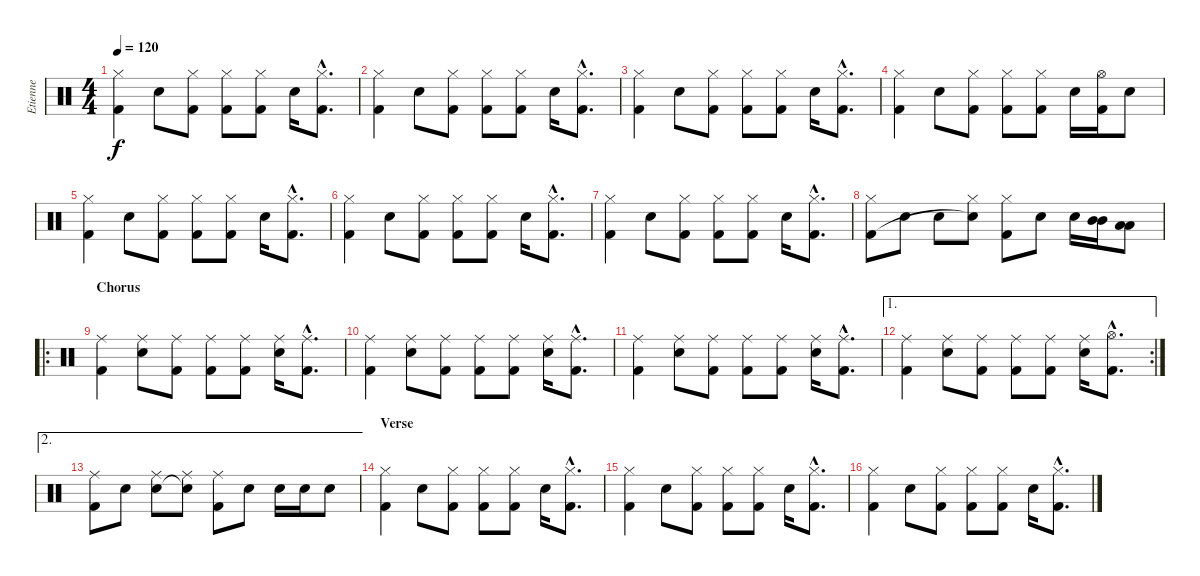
\track ("Etienne" "Etienne") {instrument percussion}
\staff {score}
\articulation defaults
\ts (4 4)
\tempo 120
\clef neutral
\ks c
("Hi-Hat (closed)" "Kick (hit) 2").4{dy f} "Snare (hit) 2".8 ("Hi-Hat (closed)" "Kick (hit) 2").8 ("Hi-Hat (closed)" "Kick (hit) 2").8 ("Hi-Hat (closed)" "Kick (hit) 2").8 "Snare (hit) 2".16 ("Hi-Hat (closed)"{hac} "Kick (hit) 2"{hac}).8{d} |
("Hi-Hat (closed)" "Kick (hit) 2").4 "Snare (hit) 2".8 ("Hi-Hat (closed)" "Kick (hit) 2").8 ("Hi-Hat (closed)" "Kick (hit) 2").8 ("Hi-Hat (closed)" "Kick (hit) 2").8 "Snare (hit) 2".16 ("Hi-Hat (closed)"{hac} "Kick (hit) 2"{hac}).8{d} |
("Hi-Hat (closed)" "Kick (hit) 2").4 "Snare (hit) 2".8 ("Hi-Hat (closed)" "Kick (hit) 2").8 ("Hi-Hat (closed)" "Kick (hit) 2").8 ("Hi-Hat (closed)" "Kick (hit) 2").8 "Snare (hit) 2".16 ("Hi-Hat (closed)"{hac} "Kick (hit) 2"{hac}).8{d} |
("Hi-Hat (closed)" "Kick (hit) 2").4 "Snare (hit) 2".8 ("Hi-Hat (closed)" "Kick (hit) 2").8 ("Hi-Hat (closed)" "Kick (hit) 2").8 ("Hi-Hat (closed)" "Kick (hit) 2").8 "Snare (hit) 2".16 ("Hi-Hat (open)" "Kick (hit) 2").16 "Snare (hit) 2".8 |
("Hi-Hat (closed)" "Kick (hit) 2").4 "Snare (hit) 2".8 ("Hi-Hat (closed)" "Kick (hit) 2").8 ("Hi-Hat (closed)" "Kick (hit) 2").8 ("Hi-Hat (closed)" "Kick (hit) 2").8 "Snare (hit) 2".16 ("Hi-Hat (closed)"{hac} "Kick (hit) 2"{hac}).8{d} |
("Hi-Hat (closed)" "Kick (hit) 2").4 "Snare (hit) 2".8 ("Hi-Hat (closed)" "Kick (hit) 2").8 ("Hi-Hat (closed)" "Kick (hit) 2").8 ("Hi-Hat (closed)" "Kick (hit) 2").8 "Snare (hit) 2".16 ("Hi-Hat (closed)"{hac} "Kick (hit) 2"{hac}).8{d} |
("Hi-Hat (closed)" "Kick (hit) 2").4 "Snare (hit) 2".8 ("Hi-Hat (closed)" "Kick (hit) 2").8 ("Hi-Hat (closed)" "Kick (hit) 2").8 ("Hi-Hat (closed)" "Kick (hit) 2").8 "Snare (hit) 2".16 ("Hi-Hat (closed)"{hac} "Kick (hit) 2"{hac}).8{d} |
("Hi-Hat (closed)" "Kick (hit) 2").8 "Snare (hit) 2".8 "Snare (hit) 2".8 ("Hi-Hat (closed)" "Snare (hit)"{t}).8 ("Hi-Hat (closed)" "Kick (hit) 2").8 "Snare (hit) 2".8 "Snare (hit) 2".16 ("Mid Tom (hit)" "Mid Tom (hit)").16 ("Low Tom (hit)" "Low Tom (hit)").8 |
\ro
\section ("" "Chorus")
("Ride (middle)" "Kick (hit) 2").4 ("Ride (middle)" "Snare (hit) 2").8 ("Ride (middle)" "Kick (hit) 2").8 ("Ride (middle)" "Kick (hit) 2").8 ("Ride (middle)" "Kick (hit) 2").8 ("Ride (middle)" "Snare (hit) 2").16 ("Ride (middle)"{hac} "Kick (hit) 2"{hac}).8{d} |
("Ride (middle)" "Kick (hit) 2").4 ("Ride (middle)" "Snare (hit) 2").8 ("Ride (middle)" "Kick (hit) 2").8 ("Ride (middle)" "Kick (hit) 2").8 ("Ride (middle)" "Kick (hit) 2").8 ("Ride (middle)" "Snare (hit) 2").16 ("Ride (middle)"{hac} "Kick (hit) 2"{hac}).8{d} |
("Ride (middle)" "Kick (hit) 2").4 ("Ride (middle)" "Snare (hit) 2").8 ("Ride (middle)" "Kick (hit) 2").8 ("Ride (middle)" "Kick (hit) 2").8 ("Ride (middle)" "Kick (hit) 2").8 ("Ride (middle)" "Snare (hit) 2").16 ("Ride (middle)"{hac} "Kick (hit) 2"{hac}).8{d} |
\ae 1
\rc 2
("Ride (middle)" "Kick (hit) 2").4 ("Ride (middle)" "Snare (hit) 2").8 ("Ride (middle)" "Kick (hit) 2").8 ("Ride (middle)" "Kick (hit) 2").8 ("Ride (middle)" "Kick (hit) 2").8 ("Ride (middle)" "Snare (hit) 2").16 ("Hi-Hat (open)"{hac} "Kick (hit) 2"{hac}).8{d} |
\ae 2
("Ride (middle)" "Kick (hit) 2").8 "Snare (hit) 2".8 ("Ride (middle)" "Snare (hit) 2").8 ("Ride (middle)" "Snare (hit)"{t}).8 ("Ride (middle)" "Kick (hit) 2").8 "Snare (hit) 2".8 "Snare (hit) 2".16 "Snare (hit) 2".16 "Snare (hit) 2".8 |
\section ("" "Verse")
("Hi-Hat (closed)" "Kick (hit) 2").4 "Snare (hit) 2".8 ("Hi-Hat (closed)" "Kick (hit) 2").8 ("Hi-Hat (closed)" "Kick (hit) 2").8 ("Hi-Hat (closed)" "Kick (hit) 2").8 "Snare (hit) 2".16 ("Hi-Hat (closed)"{hac} "Kick (hit) 2"{hac}).8{d} |
("Hi-Hat (closed)" "Kick (hit) 2").4 "Snare (hit) 2".8 ("Hi-Hat (closed)" "Kick (hit) 2").8 ("Hi-Hat (closed)" "Kick (hit) 2").8 ("Hi-Hat (closed)" "Kick (hit) 2").8 "Snare (hit) 2".16 ("Hi-Hat (closed)"{hac} "Kick (hit) 2"{hac}).8{d} |
("Hi-Hat (closed)" "Kick (hit) 2").4 "Snare (hit) 2".8 ("Hi-Hat (closed)" "Kick (hit) 2").8 ("Hi-Hat (closed)" "Kick (hit) 2").8 ("Hi-Hat (closed)" "Kick (hit) 2").8 "Snare (hit) 2".16 ("Hi-Hat (closed)"{hac} "Kick (hit) 2"{hac}).8{d}
